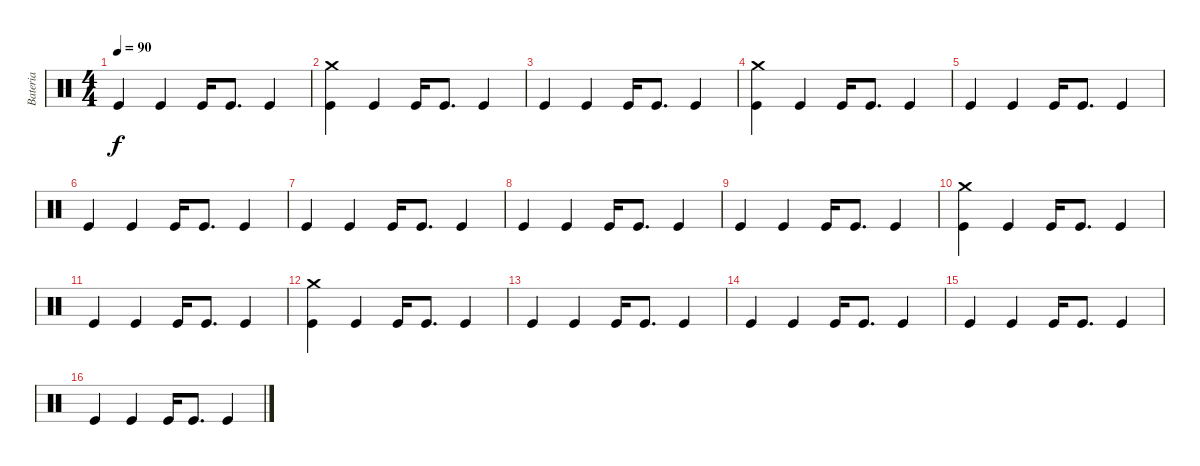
\track ("Bateria" "Bateria") {instrument percussion}
\staff {score}
\articulation defaults
\ts (4 4)
\tempo 90
\clef neutral
\ks c "Kick (hit)".4{dy f} "Kick (hit)".4 "Kick (hit)".16 "Kick (hit)".8{d} "Kick (hit)".4
|
("Kick (hit)" "Crash medium (hit)").4 "Kick (hit)".4 "Kick (hit)".16 "Kick (hit)".8{d} "Kick (hit)".4 |
"Kick (hit)".4 "Kick (hit)".4 "Kick (hit)".16 "Kick (hit)".8{d} "Kick (hit)".4 |
("Kick (hit)" "Crash medium (hit)").4 "Kick (hit)".4 "Kick (hit)".16 "Kick (hit)".8{d} "Kick (hit)".4 |
"Kick (hit)".4 "Kick (hit)".4 "Kick (hit)".16 "Kick (hit)".8{d} "Kick (hit)".4 |
"Kick (hit)".4 "Kick (hit)".4 "Kick (hit)".16 "Kick (hit)".8{d} "Kick (hit)".4 |
"Kick (hit)".4 "Kick (hit)".4 "Kick (hit)".16 "Kick (hit)".8{d} "Kick (hit)".4 |
"Kick (hit)".4 "Kick (hit)".4 "Kick (hit)".16 "Kick (hit)".8{d} "Kick (hit)".4 |
"Kick (hit)".4 "Kick (hit)".4 "Kick (hit)".16 "Kick (hit)".8{d} "Kick (hit)".4 |
("Kick (hit)" "Crash medium (hit)").4 "Kick (hit)".4 "Kick (hit)".16 "Kick (hit)".8{d} "Kick (hit)".4 |
"Kick (hit)".4 "Kick (hit)".4 "Kick (hit)".16 "Kick (hit)".8{d} "Kick (hit)".4 |
("Kick (hit)" "Crash medium (hit)").4 "Kick (hit)".4 "Kick (hit)".16 "Kick (hit)".8{d} "Kick (hit)".4 |
"Kick (hit)".4 "Kick (hit)".4 "Kick (hit)".16 "Kick (hit)".8{d} "Kick (hit)".4 |
"Kick (hit)".4 "Kick (hit)".4 "Kick (hit)".16 "Kick (hit)".8{d} "Kick (hit)".4 |
"Kick (hit)".4 "Kick (hit)".4 "Kick (hit)".16 "Kick (hit)".8{d} "Kick (hit)".4 |
"Kick (hit)".4 "Kick (hit)".4 "Kick (hit)".16 "Kick (hit)".8{d} "Kick (hit)".4
